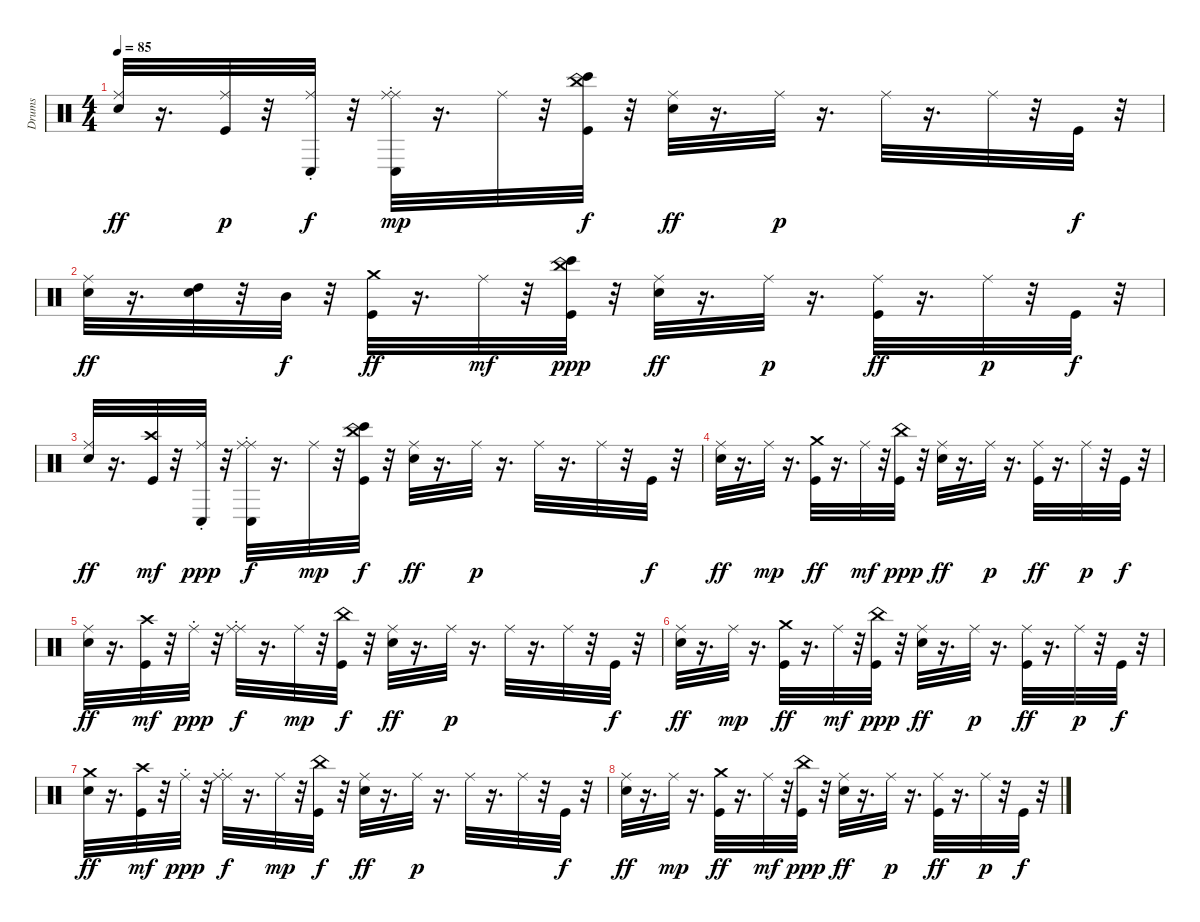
\track ("Drums" "Drums") {instrument percussion}
\staff {score}
\articulation defaults
\ts (4 4)
\tempo 85
\clef neutral
\ks c
("Ride (middle)" "Electric Snare (hit)").32{dy ff} r.16{d} ("Ride (middle)" "Kick (hit)").32{dy p} r.32 ("Conga low (hit)" "Ride (choke)").32{dy f} r.32 ("Conga low (hit)" "Ride (choke)" "Ride (middle)").32{dy mp} r.16{d} "Ride (middle)".32 r.32 ("China (choke)" "Bongo High (hit)" "Kick (hit)").32{dy f} r.32 ("Ride (middle)" "Electric Snare (hit)").32{dy ff} r.16{d} "Ride (middle)".32{dy p} r.16{d} "Ride (middle)".32 r.16{d} "Ride (middle)".32 r.32 "Kick (hit)".32{dy f} r.32 |
("Ride (middle)" "Electric Snare (hit)").32{dy ff} r.16{d} ("Snare (hit)" "High Tom (hit)").32 r.32 "Mid Tom (hit)".32{dy f} r.32 ("Crash medium (hit)" "Kick (hit)").32{dy ff} r.16{d} "Ride (middle)".32{dy mf} r.32 ("Bongo High (hit)" "China (choke)" "Kick (hit)").32{dy ppp} r.32 ("Ride (middle)" "Electric Snare (hit)").32{dy ff} r.16{d} "Ride (middle)".32{dy p} r.16{d} ("Ride (middle)" "Kick (hit)").32{dy ff} r.16{d} "Ride (middle)".32{dy p} r.32 "Kick (hit)".32{dy f} r.32 |
("Ride (middle)" "Electric Snare (hit)").32{dy ff} r.16{d} ("Crash high (hit)" "Kick (hit)").32{dy mf} r.32 ("Conga low (hit)" "Ride (choke)").32{dy ppp} r.32 ("Ride (middle)" "Conga low (hit)" "Ride (choke)").32{dy f} r.16{d} "Ride (middle)".32{dy mp} r.32 ("Bongo High (hit)" "China (choke)" "Kick (hit)").32{dy f} r.32 ("Ride (middle)" "Electric Snare (hit)").32{dy ff} r.16{d} "Ride (middle)".32{dy p} r.16{d} "Ride (middle)".32 r.16{d} "Ride (middle)".32 r.32 "Kick (hit)".32{dy f} r.32 |
("Ride (middle)" "Electric Snare (hit)").32{dy ff} r.16{d} "Ride (middle)".32{dy mp} r.16{d} ("Crash medium (hit)" "Kick (hit)").32{dy ff} r.16{d} "Ride (middle)".32{dy mf} r.32 ("China (choke)" "Kick (hit)").32{dy ppp} r.32 ("Ride (middle)" "Electric Snare (hit)").32{dy ff} r.16{d} "Ride (middle)".32{dy p} r.16{d} ("Ride (middle)" "Kick (hit)").32{dy ff} r.16{d} "Ride (middle)".32{dy p} r.32 "Kick (hit)".32{dy f} r.32 |
("Ride (middle)" "Electric Snare (hit)").32{dy ff} r.16{d} ("Crash high (hit)" "Kick (hit)").32{dy mf} r.32 "Ride (choke)".32{dy ppp} r.32 ("Ride (middle)" "Ride (choke)").32{dy f} r.16{d} "Ride (middle)".32{dy mp} r.32 ("China (choke)" "Kick (hit)").32{dy f} r.32 ("Ride (middle)" "Electric Snare (hit)").32{dy ff} r.16{d} "Ride (middle)".32{dy p} r.16{d} "Ride (middle)".32 r.16{d} "Ride (middle)".32 r.32 "Kick (hit)".32{dy f} r.32 |
("Ride (middle)" "Electric Snare (hit)").32{dy ff} r.16{d} "Ride (middle)".32{dy mp} r.16{d} ("Crash medium (hit)" "Kick (hit)").32{dy ff} r.16{d} "Ride (middle)".32{dy mf} r.32 ("China (choke)" "Kick (hit)").32{dy ppp} r.32 ("Ride (middle)" "Electric Snare (hit)").32{dy ff} r.16{d} "Ride (middle)".32{dy p} r.16{d} ("Ride (middle)" "Kick (hit)").32{dy ff} r.16{d} "Ride (middle)".32{dy p} r.32 "Kick (hit)".32{dy f} r.32 |
("Crash medium (hit)" "Electric Snare (hit)").32{dy ff} r.16{d} ("Crash high (hit)" "Kick (hit)").32{dy mf} r.32 "Ride (choke)".32{dy ppp} r.32 ("Ride (middle)" "Ride (choke)").32{dy f} r.16{d} "Ride (middle)".32{dy mp} r.32 ("China (choke)" "Kick (hit)").32{dy f} r.32 ("Ride (middle)" "Electric Snare (hit)").32{dy ff} r.16{d} "Ride (middle)".32{dy p} r.16{d} "Ride (middle)".32 r.16{d} "Ride (middle)".32 r.32 "Kick (hit)".32{dy f} r.32 |
("Ride (middle)" "Electric Snare (hit)").32{dy ff} r.16{d} "Ride (middle)".32{dy mp} r.16{d} ("Crash medium (hit)" "Kick (hit)").32{dy ff} r.16{d} "Ride (middle)".32{dy mf} r.32 ("China (choke)" "Kick (hit)").32{dy ppp} r.32 ("Ride (middle)" "Electric Snare (hit)").32{dy ff} r.16{d} "Ride (middle)".32{dy p} r.16{d} ("Ride (middle)" "Kick (hit)").32{dy ff} r.16{d} "Ride (middle)".32{dy p} r.32 "Kick (hit)".32{dy f} r.32
